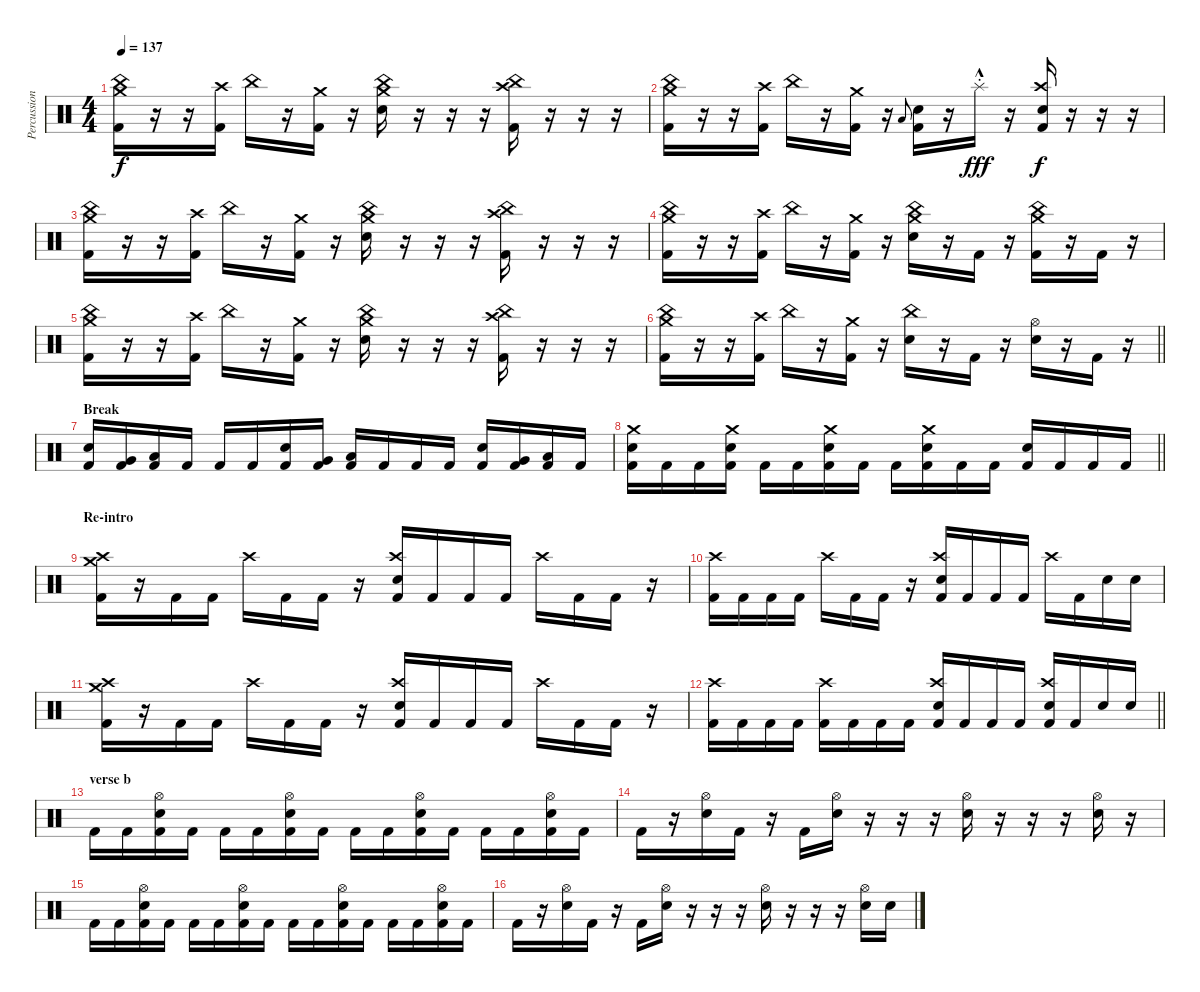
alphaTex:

\track ("Percussion" "Percussion") {instrument percussion}
\staff {score}
\articulation defaults
\ts (4 4)
\tempo 137
\clef neutral
\ks c
("China (hit)" "Crash medium (hit)" "Kick (hit) 2").16{dy f} r.16 r.16 ("Crash high (hit)" "Kick (hit) 2").16 "China (hit)".16 r.16 ("Crash medium (hit)" "Kick (hit) 2").16 r.16 ("China (hit)" "Crash medium (hit)" "Electric Snare (hit)").16 r.16 r.16 r.16 ("China (hit)" "Crash high (hit)" "Kick (hit) 2").16 r.16 r.16 r.16 |
("China (hit)" "Crash medium (hit)" "Kick (hit) 2").16 r.16 r.16 ("Crash high (hit)" "Kick (hit) 2").16 "China (hit)".16 r.16 ("Crash medium (hit)" "Kick (hit) 2").16 r.16 "Low Floor Tom (hit)".8{gr onbeat} ("Electric Snare (hit)" "Kick (hit) 2").16 r.16 "Splash (hit)"{hac st}.16{dy fff} r.16 ("Crash high (hit)" "Electric Snare (hit)" "Kick (hit) 2").16{dy f} r.16 r.16 r.16 |
("China (hit)" "Crash medium (hit)" "Kick (hit) 2").16 r.16 r.16 ("Crash high (hit)" "Kick (hit) 2").16 "China (hit)".16 r.16 ("Crash medium (hit)" "Kick (hit) 2").16 r.16 ("China (hit)" "Crash medium (hit)" "Electric Snare (hit)").16 r.16 r.16 r.16 ("China (hit)" "Crash high (hit)" "Kick (hit) 2").16 r.16 r.16 r.16 |
("China (hit)" "Crash medium (hit)" "Kick (hit) 2").16 r.16 r.16 ("Crash high (hit)" "Kick (hit) 2").16 "China (hit)".16 r.16 ("Crash medium (hit)" "Kick (hit) 2").16 r.16 ("China (hit)" "Crash medium (hit)" "Electric Snare (hit)").16 r.16 "Kick (hit) 2".16 r.16 ("China (hit)" "Crash medium (hit)" "Kick (hit) 2").16 r.16 "Kick (hit) 2".16 r.16 |
("China (hit)" "Crash medium (hit)" "Kick (hit) 2").16 r.16 r.16 ("Crash high (hit)" "Kick (hit) 2").16 "China (hit)".16 r.16 ("Crash medium (hit)" "Kick (hit) 2").16 r.16 ("China (hit)" "Crash medium (hit)" "Electric Snare (hit)").16 r.16 r.16 r.16 ("China (hit)" "Crash high (hit)" "Kick (hit) 2").16 r.16 r.16 r.16 |
\barLineRight lightlight
("China (hit)" "Crash medium (hit)" "Kick (hit) 2").16 r.16 r.16 ("Crash high (hit)" "Kick (hit) 2").16 "China (hit)".16 r.16 ("Crash medium (hit)" "Kick (hit) 2").16 r.16 ("China (hit)" "Electric Snare (hit)").16 r.16 "Kick (hit) 2".16 r.16 ("Hi-Hat (open)" "Electric Snare (hit)").16 r.16 "Kick (hit) 2".16 r.16 |
\section ("" "Break")
("Electric Snare (hit)" "Kick (hit) 2").16 ("Very Low Tom (hit)" "Kick (hit) 2").16 ("Low Floor Tom (hit)" "Kick (hit) 2").16 "Kick (hit) 2".16 "Kick (hit) 2".16 "Kick (hit) 2".16 ("Electric Snare (hit)" "Kick (hit) 2").16 ("Very Low Tom (hit)" "Kick (hit) 2").16 ("Low Floor Tom (hit)" "Kick (hit) 2").16 "Kick (hit) 2".16 "Kick (hit) 2".16 "Kick (hit) 2".16 ("Electric Snare (hit)" "Kick (hit) 2").16 ("Very Low Tom (hit)" "Kick (hit) 2").16 ("Low Floor Tom (hit)" "Kick (hit) 2").16 "Kick (hit) 2".16 |
\barLineRight lightlight
("Crash medium (hit)" "Electric Snare (hit)" "Kick (hit) 2").16 "Kick (hit) 2".16 "Kick (hit) 2".16 ("Crash medium (hit)" "Electric Snare (hit)" "Kick (hit) 2").16 "Kick (hit) 2".16 "Kick (hit) 2".16 ("Crash medium (hit)" "Electric Snare (hit)" "Kick (hit) 2").16 "Kick (hit) 2".16 "Kick (hit) 2".16 ("Crash medium (hit)" "Electric Snare (hit)" "Kick (hit) 2").16 "Kick (hit) 2".16 "Kick (hit) 2".16 ("Electric Snare (hit)" "Kick (hit) 2").16 "Kick (hit) 2".16 "Kick (hit) 2".16 "Kick (hit) 2".16 |
\section ("" "Re-intro")
("Crash high (hit)" "Crash medium (hit)" "Kick (hit) 2").16 r.16 "Kick (hit) 2".16 "Kick (hit) 2".16 "Crash high (hit)".16 "Kick (hit) 2".16 "Kick (hit) 2".16 r.16 ("Crash high (hit)" "Electric Snare (hit)" "Kick (hit) 2").16 "Kick (hit) 2".16 "Kick (hit) 2".16 "Kick (hit) 2".16 "Crash high (hit)".16 "Kick (hit) 2".16 "Kick (hit) 2".16 r.16 |
("Crash high (hit)" "Kick (hit) 2").16 "Kick (hit) 2".16 "Kick (hit) 2".16 "Kick (hit) 2".16 "Crash high (hit)".16 "Kick (hit) 2".16 "Kick (hit) 2".16 r.16 ("Crash high (hit)" "Electric Snare (hit)" "Kick (hit) 2").16 "Kick (hit) 2".16 "Kick (hit) 2".16 "Kick (hit) 2".16 "Crash high (hit)".16 "Kick (hit) 2".16 "Electric Snare (hit)".16 "Electric Snare (hit)".16 |
("Crash high (hit)" "Crash medium (hit)" "Kick (hit) 2").16 r.16 "Kick (hit) 2".16 "Kick (hit) 2".16 "Crash high (hit)".16 "Kick (hit) 2".16 "Kick (hit) 2".16 r.16 ("Crash high (hit)" "Electric Snare (hit)" "Kick (hit) 2").16 "Kick (hit) 2".16 "Kick (hit) 2".16 "Kick (hit) 2".16 "Crash high (hit)".16 "Kick (hit) 2".16 "Kick (hit) 2".16 r.16 |
\barLineRight lightlight
("Crash high (hit)" "Kick (hit) 2").16 "Kick (hit) 2".16 "Kick (hit) 2".16 "Kick (hit) 2".16 ("Crash high (hit)" "Kick (hit) 2").16 "Kick (hit) 2".16 "Kick (hit) 2".16 "Kick (hit) 2".16 ("Crash high (hit)" "Electric Snare (hit)" "Kick (hit) 2").16 "Kick (hit) 2".16 "Kick (hit) 2".16 "Kick (hit) 2".16 ("Crash high (hit)" "Electric Snare (hit)" "Kick (hit) 2").16 "Kick (hit) 2".16 "Electric Snare (hit)".16 "Electric Snare (hit)".16 |
\section ("" "verse b")
"Kick (hit) 2".16 "Kick (hit) 2".16 ("Hi-Hat (open)" "Electric Snare (hit)" "Kick (hit) 2").16 "Kick (hit) 2".16 "Kick (hit) 2".16 "Kick (hit) 2".16 ("Hi-Hat (open)" "Electric Snare (hit)" "Kick (hit) 2").16 "Kick (hit) 2".16 "Kick (hit) 2".16 "Kick (hit) 2".16 ("Hi-Hat (open)" "Electric Snare (hit)" "Kick (hit) 2").16 "Kick (hit) 2".16 "Kick (hit) 2".16 "Kick (hit) 2".16 ("Hi-Hat (open)" "Electric Snare (hit)" "Kick (hit) 2").16 "Kick (hit) 2".16 |
"Kick (hit) 2".16 r.16 ("Hi-Hat (open)" "Electric Snare (hit)").16 "Kick (hit) 2".16 r.16 "Kick (hit) 2".16 ("Hi-Hat (open)" "Electric Snare (hit)").16 r.16 r.16 r.16 ("Hi-Hat (open)" "Electric Snare (hit)").16 r.16 r.16 r.16 ("Hi-Hat (open)" "Electric Snare (hit)").16 r.16 |
"Kick (hit) 2".16 "Kick (hit) 2".16 ("Hi-Hat (open)" "Electric Snare (hit)" "Kick (hit) 2").16 "Kick (hit) 2".16 "Kick (hit) 2".16 "Kick (hit) 2".16 ("Hi-Hat (open)" "Electric Snare (hit)" "Kick (hit) 2").16 "Kick (hit) 2".16 "Kick (hit) 2".16 "Kick (hit) 2".16 ("Hi-Hat (open)" "Electric Snare (hit)" "Kick (hit) 2").16 "Kick (hit) 2".16 "Kick (hit) 2".16 "Kick (hit) 2".16 ("Hi-Hat (open)" "Electric Snare (hit)" "Kick (hit) 2").16 "Kick (hit) 2".16 |
"Kick (hit) 2".16 r.16 ("Hi-Hat (open)" "Electric Snare (hit)").16 "Kick (hit) 2".16 r.16 "Kick (hit) 2".16 ("Hi-Hat (open)" "Electric Snare (hit)").16 r.16 r.16 r.16 ("Hi-Hat (open)" "Electric Snare (hit)").16 r.16 r.16 r.16 ("Hi-Hat (open)" "Electric Snare (hit)").16 "Electric Snare (hit)".16
